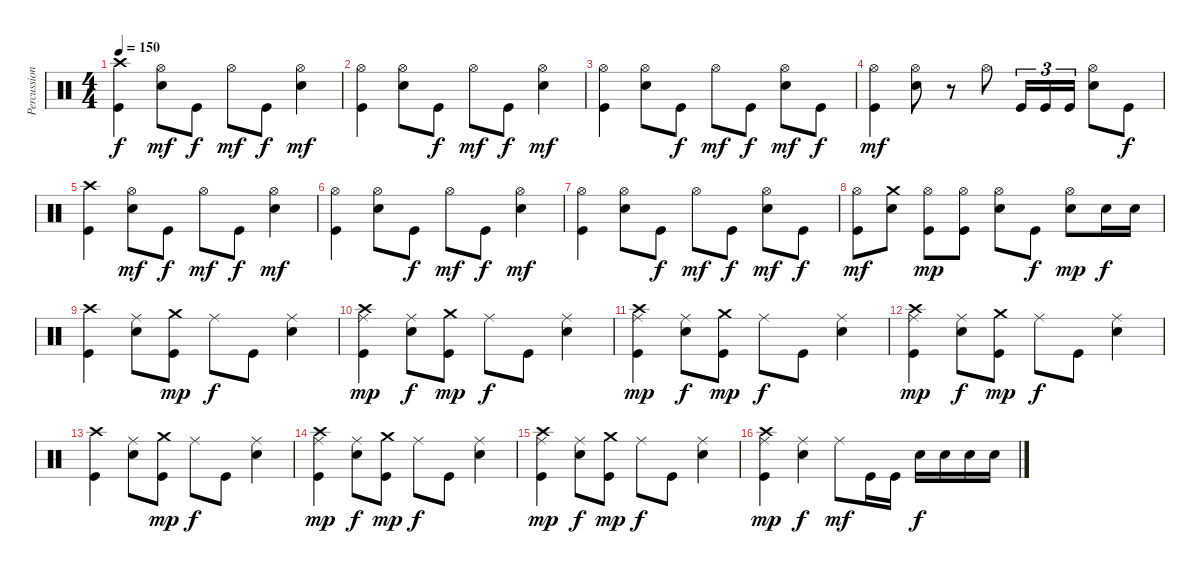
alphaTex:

\track ("Percussions" "Percussion") {instrument percussion}
\staff {score}
\articulation defaults
\ts (4 4)
\tempo 150
\clef neutral
\ks c
("Kick (hit)" "Crash high (hit)").4{dy f} ("Electric Snare (hit)" "Hi-Hat (open)").8{dy mf} "Kick (hit)".8{dy f} "Hi-Hat (open)".8{dy mf} "Kick (hit)".8{dy f} ("Electric Snare (hit)" "Hi-Hat (open)").4{dy mf} |
("Kick (hit)" "Hi-Hat (open)").4 ("Electric Snare (hit)" "Hi-Hat (open)").8 "Kick (hit)".8{dy f} "Hi-Hat (open)".8{dy mf} "Kick (hit)".8{dy f} ("Electric Snare (hit)" "Hi-Hat (open)").4{dy mf} |
("Kick (hit)" "Hi-Hat (open)").4 ("Electric Snare (hit)" "Hi-Hat (open)").8 "Kick (hit)".8{dy f} "Hi-Hat (open)".8{dy mf} "Kick (hit)".8{dy f} ("Electric Snare (hit)" "Hi-Hat (open)").8{dy mf} "Kick (hit)".8{dy f} |
("Kick (hit)" "Hi-Hat (open)").4{dy mf} ("Electric Snare (hit)" "Hi-Hat (open)").8 r.8 "Hi-Hat (open)".8 "Kick (hit)".16{tu (3 2)} "Kick (hit)".16{tu (3 2)} "Kick (hit)".16{tu (3 2)} ("Electric Snare (hit)" "Hi-Hat (open)").8 "Kick (hit)".8{dy f} |
("Kick (hit)" "Crash high (hit)").4 ("Electric Snare (hit)" "Hi-Hat (open)").8{dy mf} "Kick (hit)".8{dy f} "Hi-Hat (open)".8{dy mf} "Kick (hit)".8{dy f} ("Electric Snare (hit)" "Hi-Hat (open)").4{dy mf} |
("Kick (hit)" "Hi-Hat (open)").4 ("Electric Snare (hit)" "Hi-Hat (open)").8 "Kick (hit)".8{dy f} "Hi-Hat (open)".8{dy mf} "Kick (hit)".8{dy f} ("Electric Snare (hit)" "Hi-Hat (open)").4{dy mf} |
("Kick (hit)" "Hi-Hat (open)").4 ("Electric Snare (hit)" "Hi-Hat (open)").8 "Kick (hit)".8{dy f} "Hi-Hat (open)".8{dy mf} "Kick (hit)".8{dy f} ("Electric Snare (hit)" "Hi-Hat (open)").8{dy mf} "Kick (hit)".8{dy f} |
("Kick (hit)" "Hi-Hat (open)").8{dy mf} ("Electric Snare (hit)" "Crash medium (hit)").8 ("Kick (hit)" "Hi-Hat (open)").8{dy mp} ("Kick (hit)" "Hi-Hat (open)").8 ("Electric Snare (hit)" "Hi-Hat (open)").8 "Kick (hit)".8{dy f} ("Electric Snare (hit)" "Hi-Hat (open)").8{dy mp} "Electric Snare (hit)".16{dy f} "Electric Snare (hit)".16 |
("Kick (hit)" "Crash high (hit)").4 ("Electric Snare (hit)" "Ride (middle)").8 ("Kick (hit)" "Crash medium (hit)").8{dy mp} "Ride (middle)".8{dy f} "Kick (hit)".8 ("Electric Snare (hit)" "Ride (middle)").4 |
("Kick (hit)" "Ride (middle)" "Crash high (hit)").4{dy mp} ("Electric Snare (hit)" "Ride (middle)").8{dy f} ("Kick (hit)" "Crash medium (hit)").8{dy mp} "Ride (middle)".8{dy f} "Kick (hit)".8 ("Electric Snare (hit)" "Ride (middle)").4 |
("Kick (hit)" "Ride (middle)" "Crash high (hit)").4{dy mp} ("Electric Snare (hit)" "Ride (middle)").8{dy f} ("Kick (hit)" "Crash medium (hit)").8{dy mp} "Ride (middle)".8{dy f} "Kick (hit)".8 ("Electric Snare (hit)" "Ride (middle)").4 |
("Kick (hit)" "Ride (middle)" "Crash high (hit)").4{dy mp} ("Electric Snare (hit)" "Ride (middle)").8{dy f} ("Kick (hit)" "Crash medium (hit)").8{dy mp} "Ride (middle)".8{dy f} "Kick (hit)".8 ("Electric Snare (hit)" "Ride (middle)").4 |
("Kick (hit)" "Crash high (hit)").4 ("Electric Snare (hit)" "Ride (middle)").8 ("Kick (hit)" "Crash medium (hit)").8{dy mp} "Ride (middle)".8{dy f} "Kick (hit)".8 ("Electric Snare (hit)" "Ride (middle)").4 |
("Kick (hit)" "Ride (middle)" "Crash high (hit)").4{dy mp} ("Electric Snare (hit)" "Ride (middle)").8{dy f} ("Kick (hit)" "Crash medium (hit)").8{dy mp} "Ride (middle)".8{dy f} "Kick (hit)".8 ("Electric Snare (hit)" "Ride (middle)").4 |
("Kick (hit)" "Ride (middle)" "Crash high (hit)").4{dy mp} ("Electric Snare (hit)" "Ride (middle)").8{dy f} ("Kick (hit)" "Crash medium (hit)").8{dy mp} "Ride (middle)".8{dy f} "Kick (hit)".8 ("Electric Snare (hit)" "Ride (middle)").4 |
("Kick (hit)" "Ride (middle)" "Crash high (hit)").4{dy mp} ("Electric Snare (hit)" "Ride (middle)").4{dy f} "Ride (middle)".8{dy mf} "Kick (hit)".16 "Kick (hit)".16 "Electric Snare (hit)".16{dy f} "Electric Snare (hit)".16 "Electric Snare (hit)".16 "Electric Snare (hit)".16
